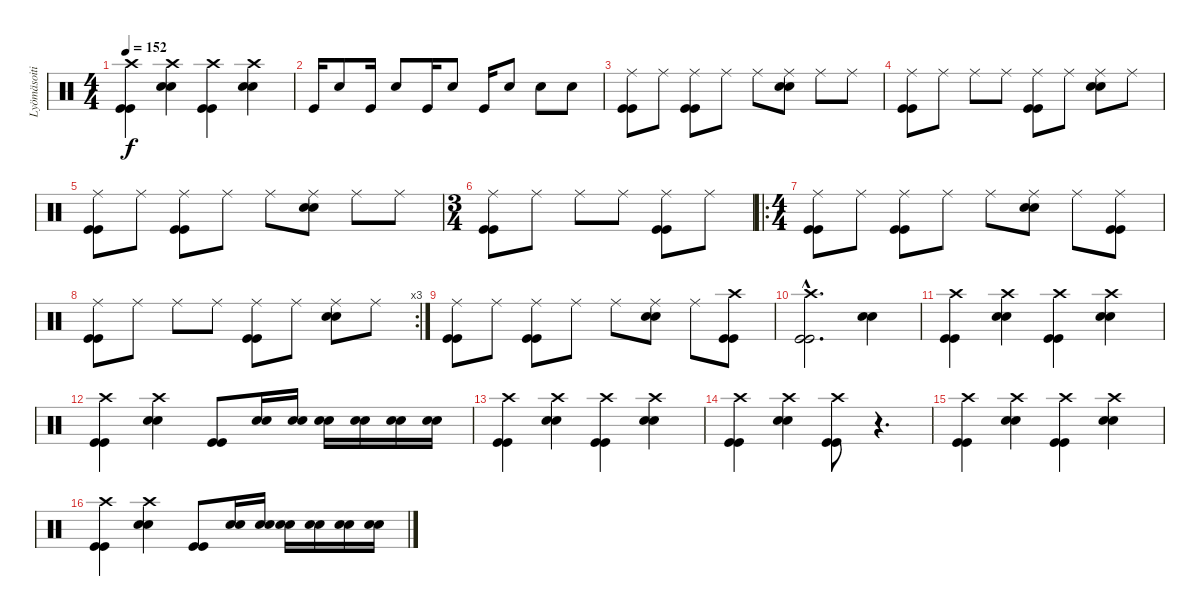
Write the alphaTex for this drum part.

\track ("Lyömäsoitin" "Lyömäsoiti") {instrument percussion}
\staff {score}
\articulation defaults
\ts (4 4)
\tempo 152
\clef neutral
\ks c
("Crash high (hit)" "Kick (hit)" "Kick (hit)").4{dy f} ("Crash high (hit)" "Snare (hit) 2" "Snare (hit) 2").4 ("Crash high (hit)" "Kick (hit)" "Kick (hit)").4 ("Crash high (hit)" "Snare (hit) 2" "Snare (hit) 2").4 |
"Kick (hit)".16 "Snare (hit) 2".8 "Kick (hit)".16 "Snare (hit) 2".8 "Kick (hit)".16 "Snare (hit) 2".8 "Kick (hit)".16 "Snare (hit) 2".8 "Snare (hit) 2".8 "Snare (hit) 2".8 |
("Ride (middle)" "Kick (hit)" "Kick (hit)").8 "Ride (middle)".8 ("Ride (middle)" "Kick (hit)" "Kick (hit)").8 "Ride (middle)".8 "Ride (middle)".8 ("Ride (middle)" "Snare (hit) 2" "Snare (hit) 2").8 "Ride (middle)".8 "Ride (middle)".8 |
("Ride (middle)" "Kick (hit)" "Kick (hit)").8 "Ride (middle)".8 "Ride (middle)".8 "Ride (middle)".8 ("Ride (middle)" "Kick (hit)" "Kick (hit)").8 "Ride (middle)".8 ("Ride (middle)" "Snare (hit) 2" "Snare (hit) 2").8 "Ride (middle)".8 |
("Ride (middle)" "Kick (hit)" "Kick (hit)").8 "Ride (middle)".8 ("Ride (middle)" "Kick (hit)" "Kick (hit)").8 "Ride (middle)".8 "Ride (middle)".8 ("Ride (middle)" "Snare (hit) 2" "Snare (hit) 2").8 "Ride (middle)".8 "Ride (middle)".8 |
\ts (3 4)
("Ride (middle)" "Kick (hit)" "Kick (hit)").8 "Ride (middle)".8 "Ride (middle)".8 "Ride (middle)".8 ("Ride (middle)" "Kick (hit)" "Kick (hit)").8 "Ride (middle)".8 |
\ro
\ts (4 4)
("Ride (middle)" "Kick (hit)" "Kick (hit)").8 "Ride (middle)".8 ("Ride (middle)" "Kick (hit)" "Kick (hit)").8 "Ride (middle)".8 "Ride (middle)".8 ("Ride (middle)" "Snare (hit) 2" "Snare (hit) 2").8 "Ride (middle)".8 ("Ride (middle)" "Kick (hit)" "Kick (hit)").8 |
\rc 3
("Ride (middle)" "Kick (hit)" "Kick (hit)").8 "Ride (middle)".8 "Ride (middle)".8 "Ride (middle)".8 ("Ride (middle)" "Kick (hit)" "Kick (hit)").8 "Ride (middle)".8 ("Ride (middle)" "Snare (hit) 2" "Snare (hit) 2").8 "Ride (middle)".8 |
("Ride (middle)" "Kick (hit)" "Kick (hit)").8 "Ride (middle)".8 ("Ride (middle)" "Kick (hit)" "Kick (hit)").8 "Ride (middle)".8 "Ride (middle)".8 ("Ride (middle)" "Snare (hit) 2" "Snare (hit) 2").8 "Ride (middle)".8 ("Crash high (hit)" "Kick (hit)" "Kick (hit)").8 |
("Crash high (hit)"{hac} "Kick (hit)"{hac} "Kick (hit)"{hac}).2{d} ("Snare (hit) 2" "Snare (hit) 2").4 |
("Crash high (hit)" "Kick (hit)" "Kick (hit)").4 ("Crash high (hit)" "Snare (hit) 2" "Snare (hit) 2").4 ("Crash high (hit)" "Kick (hit)" "Kick (hit)").4 ("Crash high (hit)" "Snare (hit) 2" "Snare (hit) 2").4 |
("Crash high (hit)" "Kick (hit)" "Kick (hit)").4 ("Crash high (hit)" "Snare (hit) 2" "Snare (hit) 2").4 ("Kick (hit)" "Kick (hit)").8 ("Snare (hit) 2" "Snare (hit) 2").16 ("Snare (hit) 2" "Snare (hit) 2").16 ("Snare (hit) 2" "Snare (hit) 2").16 ("Snare (hit) 2" "Snare (hit) 2").16 ("Snare (hit) 2" "Snare (hit) 2").16 ("Snare (hit) 2" "Snare (hit) 2").16 |
("Crash high (hit)" "Kick (hit)" "Kick (hit)").4 ("Crash high (hit)" "Snare (hit) 2" "Snare (hit) 2").4 ("Crash high (hit)" "Kick (hit)" "Kick (hit)").4 ("Crash high (hit)" "Snare (hit) 2" "Snare (hit) 2").4 |
("Crash high (hit)" "Kick (hit)" "Kick (hit)").4 ("Crash high (hit)" "Snare (hit) 2" "Snare (hit) 2").4 ("Crash high (hit)" "Kick (hit)" "Kick (hit)").8 r.4{d} |
("Crash high (hit)" "Kick (hit)" "Kick (hit)").4 ("Crash high (hit)" "Snare (hit) 2" "Snare (hit) 2").4 ("Crash high (hit)" "Kick (hit)" "Kick (hit)").4 ("Crash high (hit)" "Snare (hit) 2" "Snare (hit) 2").4 |
("Crash high (hit)" "Kick (hit)" "Kick (hit)").4 ("Crash high (hit)" "Snare (hit) 2" "Snare (hit) 2").4 ("Kick (hit)" "Kick (hit)").8 ("Snare (hit) 2" "Snare (hit) 2").16 ("Snare (hit) 2" "Snare (hit) 2").16 ("Snare (hit) 2" "Snare (hit) 2").16 ("Snare (hit) 2" "Snare (hit) 2").16 ("Snare (hit) 2" "Snare (hit) 2").16 ("Snare (hit) 2" "Snare (hit) 2").16
